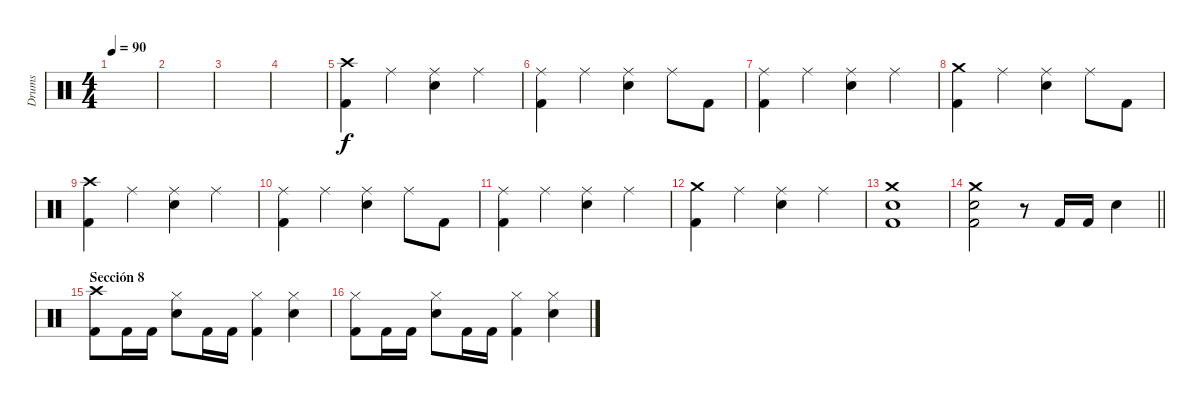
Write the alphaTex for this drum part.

\track ("Drums" "Drums") {instrument percussion}
\staff {score}
\articulation defaults
\ts (4 4)
\tempo 90
\clef neutral
\ks c
|
|
|
|
("Crash high (hit)" "Kick (hit) 2").4 "Ride (middle)".4 ("Ride (middle)" "Snare (hit) 2").4 "Ride (middle)".4 |
("Ride (middle)" "Kick (hit) 2").4 "Ride (middle)".4 ("Ride (middle)" "Snare (hit) 2").4 "Ride (middle)".8 "Kick (hit) 2".8 |
("Ride (middle)" "Kick (hit) 2").4 "Ride (middle)".4 ("Ride (middle)" "Snare (hit) 2").4 "Ride (middle)".4 |
("Crash medium (hit)" "Kick (hit) 2").4 "Ride (middle)".4 ("Ride (middle)" "Snare (hit) 2").4 "Ride (middle)".8 "Kick (hit) 2".8 |
("Crash high (hit)" "Kick (hit) 2").4 "Ride (middle)".4 ("Ride (middle)" "Snare (hit) 2").4 "Ride (middle)".4 |
("Ride (middle)" "Kick (hit) 2").4 "Ride (middle)".4 ("Ride (middle)" "Snare (hit) 2").4 "Ride (middle)".8 "Kick (hit) 2".8 |
("Ride (middle)" "Kick (hit) 2").4 "Ride (middle)".4 ("Ride (middle)" "Snare (hit) 2").4 "Ride (middle)".4 |
("Crash medium (hit)" "Kick (hit) 2").4 "Ride (middle)".4 ("Ride (middle)" "Snare (hit) 2").4 "Ride (middle)".4 |
("Crash medium (hit)" "Snare (hit) 2" "Kick (hit) 2").1 |
\barLineRight lightlight
("Crash medium (hit)" "Snare (hit) 2" "Kick (hit) 2").2 r.8 "Kick (hit) 2".16 "Kick (hit) 2".16 "Snare (hit) 2".4 |
\section ("" "Sección 8")
("Crash high (hit)" "Kick (hit) 2").8 "Kick (hit) 2".16 "Kick (hit) 2".16 ("Hi-Hat (closed)" "Snare (hit) 2").8 "Kick (hit) 2".16 "Kick (hit) 2".16 ("Hi-Hat (closed)" "Kick (hit) 2").4 ("Hi-Hat (closed)" "Snare (hit) 2").4 |
("Hi-Hat (closed)" "Kick (hit) 2").8 "Kick (hit) 2".16 "Kick (hit) 2".16 ("Hi-Hat (closed)" "Snare (hit) 2").8 "Kick (hit) 2".16 "Kick (hit) 2".16 ("Hi-Hat (closed)" "Kick (hit) 2").4 ("Hi-Hat (closed)" "Snare (hit) 2").4
